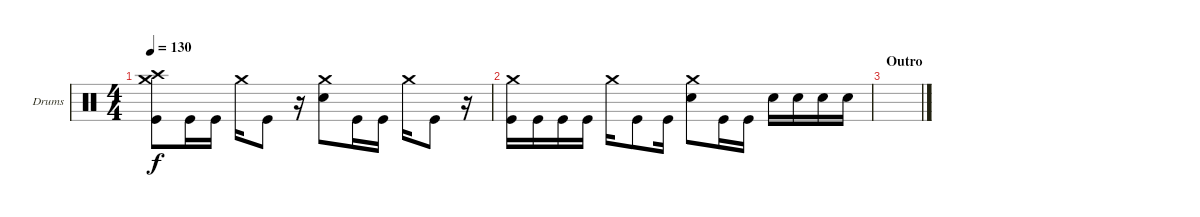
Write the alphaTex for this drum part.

\bracketExtendMode groupsimilarinstruments
\firstSystemTrackNameOrientation horizontal
\otherSystemsTrackNameOrientation horizontal
\track ("Drumkit" "Drums") {instrument percussion}
\staff {score}
\articulation defaults
\ts (4 4)
\tempo 130
\clef neutral
\ks c
("Kick (hit)" "Crash high (hit)" "Crash medium (hit)").8{dy f} "Kick (hit)".16 "Kick (hit)".16 "Crash medium (hit)".16 "Kick (hit)".8 r.16 ("Crash medium (hit)" "Snare (hit) 2").8 "Kick (hit)".16 "Kick (hit)".16 "Crash medium (hit)".16 "Kick (hit)".8 r.16 |
("Kick (hit)" "Crash medium (hit)").16 "Kick (hit)".16 "Kick (hit)".16 "Kick (hit)".16 "Crash medium (hit)".16 "Kick (hit)".8 "Kick (hit)".16 ("Snare (hit) 2" "Crash medium (hit)").8 "Kick (hit)".16 "Kick (hit)".16 "Snare (hit) 2".16 "Snare (hit) 2".16 "Snare (hit) 2".16 "Snare (hit) 2".16 |
\section ("" "Outro")
